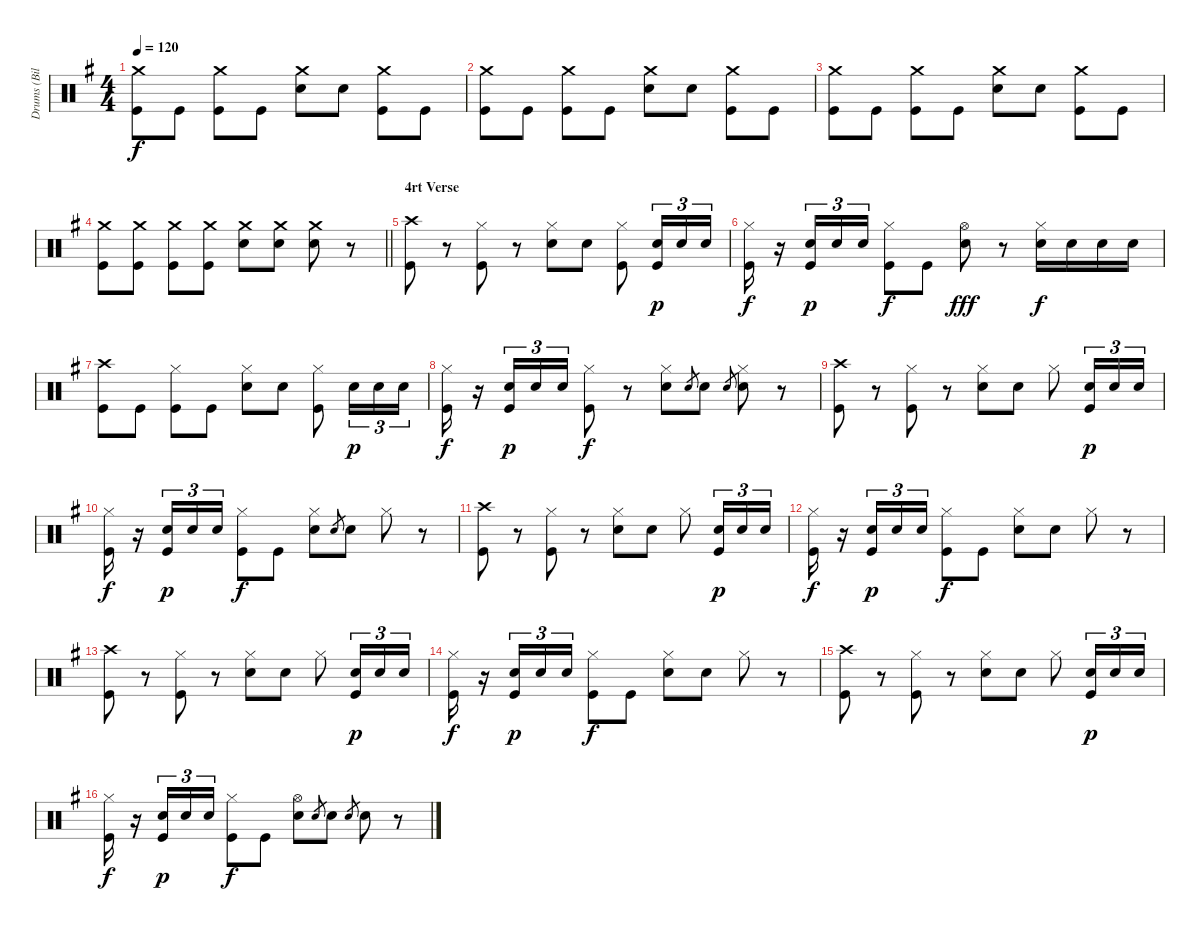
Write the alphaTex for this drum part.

\track ("Drums (Bill Ward)" "Drums (Bil") {instrument percussion}
\staff {score}
\articulation defaults
\ts (4 4)
\tempo 120
\clef neutral
\ks g
("Crash medium (hit)" "Kick (hit)").8{dy f} "Kick (hit)".8 ("Crash medium (hit)" "Kick (hit)").8 "Kick (hit)".8 ("Crash medium (hit)" "Electric Snare (hit)").8 "Electric Snare (hit)".8 ("Crash medium (hit)" "Kick (hit)").8 "Kick (hit)".8 |
("Crash medium (hit)" "Kick (hit)").8 "Kick (hit)".8 ("Crash medium (hit)" "Kick (hit)").8 "Kick (hit)".8 ("Crash medium (hit)" "Electric Snare (hit)").8 "Electric Snare (hit)".8 ("Crash medium (hit)" "Kick (hit)").8 "Kick (hit)".8 |
("Crash medium (hit)" "Kick (hit)").8 "Kick (hit)".8 ("Crash medium (hit)" "Kick (hit)").8 "Kick (hit)".8 ("Crash medium (hit)" "Electric Snare (hit)").8 "Electric Snare (hit)".8 ("Crash medium (hit)" "Kick (hit)").8 "Kick (hit)".8 |
\barLineRight lightlight
("Crash medium (hit)" "Kick (hit)").8 ("Crash medium (hit)" "Kick (hit)").8 ("Crash medium (hit)" "Kick (hit)").8 ("Crash medium (hit)" "Kick (hit)").8 ("Crash medium (hit)" "Electric Snare (hit)").8 ("Crash medium (hit)" "Electric Snare (hit)").8 ("Crash medium (hit)" "Electric Snare (hit)").8 r.8 |
\section ("" "4rt Verse")
("Crash high (hit)" "Kick (hit)").8 r.8 ("Hi-Hat (closed)" "Kick (hit)").8 r.8 ("Hi-Hat (closed)" "Electric Snare (hit)").8 "Electric Snare (hit)".8 ("Hi-Hat (closed)" "Kick (hit)").8 ("Electric Snare (hit)" "Kick (hit)").16{tu (3 2) dy p} "Electric Snare (hit)".16{tu (3 2)} "Electric Snare (hit)".16{tu (3 2)} |
("Hi-Hat (closed)" "Kick (hit)").16{dy f} r.16 ("Electric Snare (hit)" "Kick (hit)").16{tu (3 2) dy p} "Electric Snare (hit)".16{tu (3 2)} "Electric Snare (hit)".16{tu (3 2)} ("Hi-Hat (closed)" "Kick (hit)").8{dy f} "Kick (hit)".8 ("Hi-Hat (open)" "Electric Snare (hit)").8{dy fff} r.8 ("Hi-Hat (closed)" "Electric Snare (hit)").16{dy f} "Electric Snare (hit)".16 "Electric Snare (hit)".16 "Electric Snare (hit)".16 |
("Crash high (hit)" "Kick (hit)").8 "Kick (hit)".8 ("Hi-Hat (closed)" "Kick (hit)").8 "Kick (hit)".8 ("Hi-Hat (closed)" "Electric Snare (hit)").8 "Electric Snare (hit)".8 ("Hi-Hat (closed)" "Kick (hit)").8 "Electric Snare (hit)".16{tu (3 2) dy p} "Electric Snare (hit)".16{tu (3 2)} "Electric Snare (hit)".16{tu (3 2)} |
("Hi-Hat (closed)" "Kick (hit)").16{dy f} r.16 ("Electric Snare (hit)" "Kick (hit)").16{tu (3 2) dy p} "Electric Snare (hit)".16{tu (3 2)} "Electric Snare (hit)".16{tu (3 2)} ("Hi-Hat (closed)" "Kick (hit)").8{dy f} r.8 ("Hi-Hat (closed)" "Electric Snare (hit)").8 "Electric Snare (hit)".8{gr} "Electric Snare (hit)".8 "Electric Snare (hit)".8{gr} ("Hi-Hat (closed)" "Electric Snare (hit)").8 r.8 |
("Crash high (hit)" "Kick (hit)").8 r.8 ("Hi-Hat (closed)" "Kick (hit)").8 r.8 ("Hi-Hat (closed)" "Electric Snare (hit)").8 "Electric Snare (hit)".8 "Hi-Hat (closed)".8 ("Electric Snare (hit)" "Kick (hit)").16{tu (3 2) dy p} "Electric Snare (hit)".16{tu (3 2)} "Electric Snare (hit)".16{tu (3 2)} |
("Hi-Hat (closed)" "Kick (hit)").16{dy f} r.16 ("Electric Snare (hit)" "Kick (hit)").16{tu (3 2) dy p} "Electric Snare (hit)".16{tu (3 2)} "Electric Snare (hit)".16{tu (3 2)} ("Hi-Hat (closed)" "Kick (hit)").8{dy f} "Kick (hit)".8 ("Hi-Hat (closed)" "Electric Snare (hit)").8 "Electric Snare (hit)".8{gr} "Electric Snare (hit)".8 "Hi-Hat (closed)".8 r.8 |
("Crash high (hit)" "Kick (hit)").8 r.8 ("Hi-Hat (closed)" "Kick (hit)").8 r.8 ("Hi-Hat (closed)" "Electric Snare (hit)").8 "Electric Snare (hit)".8 "Hi-Hat (closed)".8 ("Electric Snare (hit)" "Kick (hit)").16{tu (3 2) dy p} "Electric Snare (hit)".16{tu (3 2)} "Electric Snare (hit)".16{tu (3 2)} |
("Hi-Hat (closed)" "Kick (hit)").16{dy f} r.16 ("Electric Snare (hit)" "Kick (hit)").16{tu (3 2) dy p} "Electric Snare (hit)".16{tu (3 2)} "Electric Snare (hit)".16{tu (3 2)} ("Hi-Hat (closed)" "Kick (hit)").8{dy f} "Kick (hit)".8 ("Hi-Hat (closed)" "Electric Snare (hit)").8 "Electric Snare (hit)".8 "Hi-Hat (closed)".8 r.8 |
("Crash high (hit)" "Kick (hit)").8 r.8 ("Hi-Hat (closed)" "Kick (hit)").8 r.8 ("Hi-Hat (closed)" "Electric Snare (hit)").8 "Electric Snare (hit)".8 "Hi-Hat (closed)".8 ("Electric Snare (hit)" "Kick (hit)").16{tu (3 2) dy p} "Electric Snare (hit)".16{tu (3 2)} "Electric Snare (hit)".16{tu (3 2)} |
("Hi-Hat (closed)" "Kick (hit)").16{dy f} r.16 ("Electric Snare (hit)" "Kick (hit)").16{tu (3 2) dy p} "Electric Snare (hit)".16{tu (3 2)} "Electric Snare (hit)".16{tu (3 2)} ("Hi-Hat (closed)" "Kick (hit)").8{dy f} "Kick (hit)".8 ("Hi-Hat (closed)" "Electric Snare (hit)").8 "Electric Snare (hit)".8 "Hi-Hat (closed)".8 r.8 |
("Crash high (hit)" "Kick (hit)").8 r.8 ("Hi-Hat (closed)" "Kick (hit)").8 r.8 ("Hi-Hat (closed)" "Electric Snare (hit)").8 "Electric Snare (hit)".8 "Hi-Hat (closed)".8 ("Electric Snare (hit)" "Kick (hit)").16{tu (3 2) dy p} "Electric Snare (hit)".16{tu (3 2)} "Electric Snare (hit)".16{tu (3 2)} |
("Hi-Hat (closed)" "Kick (hit)").16{dy f} r.16 ("Electric Snare (hit)" "Kick (hit)").16{tu (3 2) dy p} "Electric Snare (hit)".16{tu (3 2)} "Electric Snare (hit)".16{tu (3 2)} ("Hi-Hat (closed)" "Kick (hit)").8{dy f} "Kick (hit)".8 ("Hi-Hat (open)" "Electric Snare (hit)").8 "Electric Snare (hit)".8{gr} "Electric Snare (hit)".8 "Electric Snare (hit)".8{gr} "Electric Snare (hit)".8 r.8
